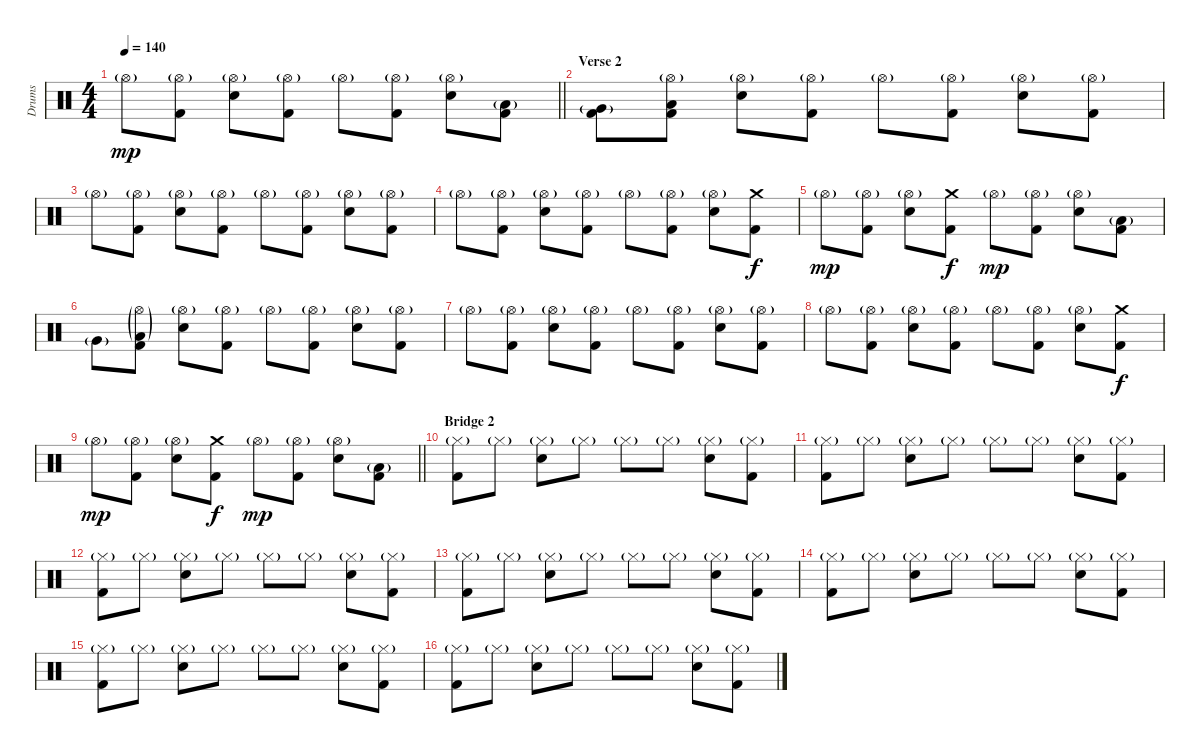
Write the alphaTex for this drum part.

\track ("Drums" "Drums") {instrument percussion}
\staff {score}
\articulation defaults
\ts (4 4)
\tempo 140
\clef neutral
\barLineRight lightlight
\ks c "Hi-Hat (open)"{g}.8{dy mp}
("Hi-Hat (open)"{g} "Kick (hit) 2").8 ("Hi-Hat (open)"{g} "Electric Snare (hit)").8 ("Hi-Hat (open)"{g} "Kick (hit) 2").8 "Hi-Hat (open)"{g}.8 ("Hi-Hat (open)"{g} "Kick (hit) 2").8 ("Hi-Hat (open)"{g} "Electric Snare (hit)").8 ("Low Tom (hit)"{g} "Kick (hit) 2").8 |
\section ("" "Verse 2")
("Very Low Tom (hit)"{g} "Kick (hit) 2").8 ("Hi-Hat (open)"{g} "Low Floor Tom (hit)" "Kick (hit) 2").8 ("Hi-Hat (open)"{g} "Electric Snare (hit)").8 ("Hi-Hat (open)"{g} "Kick (hit) 2").8 "Hi-Hat (open)"{g}.8 ("Hi-Hat (open)"{g} "Kick (hit) 2").8 ("Hi-Hat (open)"{g} "Electric Snare (hit)").8 ("Hi-Hat (open)"{g} "Kick (hit) 2").8 |
"Hi-Hat (open)"{g}.8 ("Hi-Hat (open)"{g} "Kick (hit) 2").8 ("Hi-Hat (open)"{g} "Electric Snare (hit)").8 ("Hi-Hat (open)"{g} "Kick (hit) 2").8 "Hi-Hat (open)"{g}.8 ("Hi-Hat (open)"{g} "Kick (hit) 2").8 ("Hi-Hat (open)"{g} "Electric Snare (hit)").8 ("Hi-Hat (open)"{g} "Kick (hit) 2").8 |
"Hi-Hat (open)"{g}.8 ("Hi-Hat (open)"{g} "Kick (hit) 2").8 ("Hi-Hat (open)"{g} "Electric Snare (hit)").8 ("Hi-Hat (open)"{g} "Kick (hit) 2").8 "Hi-Hat (open)"{g}.8 ("Hi-Hat (open)"{g} "Kick (hit) 2").8 ("Hi-Hat (open)"{g} "Electric Snare (hit)").8 ("Crash medium (hit)" "Kick (hit) 2").8{dy f} |
"Hi-Hat (open)"{g}.8{dy mp} ("Hi-Hat (open)"{g} "Kick (hit) 2").8 ("Hi-Hat (open)"{g} "Electric Snare (hit)").8 ("Crash medium (hit)" "Kick (hit) 2").8{dy f} "Hi-Hat (open)"{g}.8{dy mp} ("Hi-Hat (open)"{g} "Kick (hit) 2").8 ("Hi-Hat (open)"{g} "Electric Snare (hit)").8 ("Low Tom (hit)"{g} "Kick (hit) 2").8 |
"Very Low Tom (hit)"{g}.8 ("Hi-Hat (open)"{g} "Low Floor Tom (hit)"{g} "Kick (hit) 2").8 ("Hi-Hat (open)"{g} "Electric Snare (hit)").8 ("Hi-Hat (open)"{g} "Kick (hit) 2").8 "Hi-Hat (open)"{g}.8 ("Hi-Hat (open)"{g} "Kick (hit) 2").8 ("Hi-Hat (open)"{g} "Electric Snare (hit)").8 ("Hi-Hat (open)"{g} "Kick (hit) 2").8 |
"Hi-Hat (open)"{g}.8 ("Hi-Hat (open)"{g} "Kick (hit) 2").8 ("Hi-Hat (open)"{g} "Electric Snare (hit)").8 ("Hi-Hat (open)"{g} "Kick (hit) 2").8 "Hi-Hat (open)"{g}.8 ("Hi-Hat (open)"{g} "Kick (hit) 2").8 ("Hi-Hat (open)"{g} "Electric Snare (hit)").8 ("Hi-Hat (open)"{g} "Kick (hit) 2").8 |
"Hi-Hat (open)"{g}.8 ("Hi-Hat (open)"{g} "Kick (hit) 2").8 ("Hi-Hat (open)"{g} "Electric Snare (hit)").8 ("Hi-Hat (open)"{g} "Kick (hit) 2").8 "Hi-Hat (open)"{g}.8 ("Hi-Hat (open)"{g} "Kick (hit) 2").8 ("Hi-Hat (open)"{g} "Electric Snare (hit)").8 ("Crash medium (hit)" "Kick (hit) 2").8{dy f} |
\barLineRight lightlight "Hi-Hat (open)"{g}.8{dy mp}
("Hi-Hat (open)"{g} "Kick (hit) 2").8 ("Hi-Hat (open)"{g} "Electric Snare (hit)").8 ("Crash medium (hit)" "Kick (hit) 2").8{dy f} "Hi-Hat (open)"{g}.8{dy mp} ("Hi-Hat (open)"{g} "Kick (hit) 2").8 ("Hi-Hat (open)"{g} "Electric Snare (hit)").8 ("Low Tom (hit)"{g} "Kick (hit) 2").8 |
\section ("" "Bridge 2")
("Hi-Hat (closed)"{g} "Kick (hit) 2").8 "Hi-Hat (closed)"{g}.8 ("Hi-Hat (closed)"{g} "Electric Snare (hit)").8 "Hi-Hat (closed)"{g}.8 "Hi-Hat (closed)"{g}.8 "Hi-Hat (closed)"{g}.8 ("Hi-Hat (closed)"{g} "Electric Snare (hit)").8 ("Hi-Hat (closed)"{g} "Kick (hit) 2").8 |
("Hi-Hat (closed)"{g} "Kick (hit) 2").8 "Hi-Hat (closed)"{g}.8 ("Hi-Hat (closed)"{g} "Electric Snare (hit)").8 "Hi-Hat (closed)"{g}.8 "Hi-Hat (closed)"{g}.8 "Hi-Hat (closed)"{g}.8 ("Hi-Hat (closed)"{g} "Electric Snare (hit)").8 ("Hi-Hat (closed)"{g} "Kick (hit) 2").8 |
("Hi-Hat (closed)"{g} "Kick (hit) 2").8 "Hi-Hat (closed)"{g}.8 ("Hi-Hat (closed)"{g} "Electric Snare (hit)").8 "Hi-Hat (closed)"{g}.8 "Hi-Hat (closed)"{g}.8 "Hi-Hat (closed)"{g}.8 ("Hi-Hat (closed)"{g} "Electric Snare (hit)").8 ("Hi-Hat (closed)"{g} "Kick (hit) 2").8 |
("Hi-Hat (closed)"{g} "Kick (hit) 2").8 "Hi-Hat (closed)"{g}.8 ("Hi-Hat (closed)"{g} "Electric Snare (hit)").8 "Hi-Hat (closed)"{g}.8 "Hi-Hat (closed)"{g}.8 "Hi-Hat (closed)"{g}.8 ("Hi-Hat (closed)"{g} "Electric Snare (hit)").8 ("Hi-Hat (closed)"{g} "Kick (hit) 2").8 |
("Hi-Hat (closed)"{g} "Kick (hit) 2").8 "Hi-Hat (closed)"{g}.8 ("Hi-Hat (closed)"{g} "Electric Snare (hit)").8 "Hi-Hat (closed)"{g}.8 "Hi-Hat (closed)"{g}.8 "Hi-Hat (closed)"{g}.8 ("Hi-Hat (closed)"{g} "Electric Snare (hit)").8 ("Hi-Hat (closed)"{g} "Kick (hit) 2").8 |
("Hi-Hat (closed)"{g} "Kick (hit) 2").8 "Hi-Hat (closed)"{g}.8 ("Hi-Hat (closed)"{g} "Electric Snare (hit)").8 "Hi-Hat (closed)"{g}.8 "Hi-Hat (closed)"{g}.8 "Hi-Hat (closed)"{g}.8 ("Hi-Hat (closed)"{g} "Electric Snare (hit)").8 ("Hi-Hat (closed)"{g} "Kick (hit) 2").8 |
("Hi-Hat (closed)"{g} "Kick (hit) 2").8 "Hi-Hat (closed)"{g}.8 ("Hi-Hat (closed)"{g} "Electric Snare (hit)").8 "Hi-Hat (closed)"{g}.8 "Hi-Hat (closed)"{g}.8 "Hi-Hat (closed)"{g}.8 ("Hi-Hat (closed)"{g} "Electric Snare (hit)").8 ("Hi-Hat (closed)"{g} "Kick (hit) 2").8
